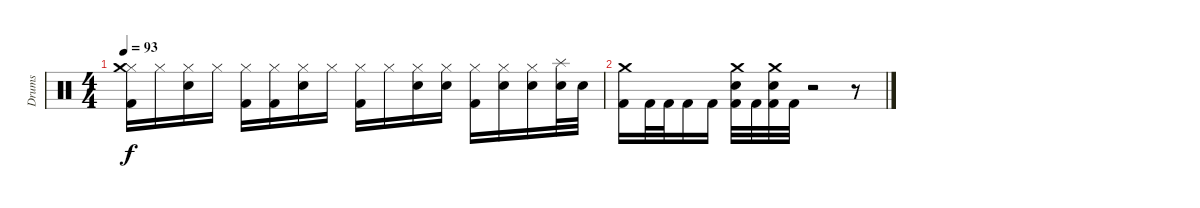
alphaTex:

\track ("Drums" "Drums") {instrument percussion}
\staff {score}
\articulation defaults
\ts (4 4)
\tempo 93
\clef neutral
\ks c
("Hi-Hat (closed)" "Crash medium (hit)" "Kick (hit) 2").16{dy f} "Hi-Hat (closed)".16 ("Hi-Hat (closed)" "Snare (hit) 2").16 "Hi-Hat (closed)".16 ("Hi-Hat (closed)" "Kick (hit) 2").16 ("Hi-Hat (closed)" "Kick (hit) 2").16 ("Hi-Hat (closed)" "Snare (hit) 2").16 "Hi-Hat (closed)".16 ("Hi-Hat (closed)" "Kick (hit) 2").16 "Hi-Hat (closed)".16 ("Hi-Hat (closed)" "Snare (hit) 2").16 ("Hi-Hat (closed)" "Snare (hit) 2").16 ("Hi-Hat (closed)" "Kick (hit) 2").16 ("Hi-Hat (closed)" "Snare (hit) 2").16 ("Hi-Hat (closed)" "Snare (hit) 2").16 ("Splash (hit)" "Snare (hit) 2").32 "Snare (hit) 2".32 |
("Crash medium (hit)" "Kick (hit) 2").16 "Kick (hit) 2".32 "Kick (hit) 2".32 "Kick (hit) 2".16 "Kick (hit) 2".16 ("Crash medium (hit)" "Snare (hit) 2" "Kick (hit) 2").32 "Kick (hit) 2".32 ("Crash medium (hit)" "Snare (hit) 2" "Kick (hit) 2").32 "Kick (hit) 2".32 r.2 r.8
